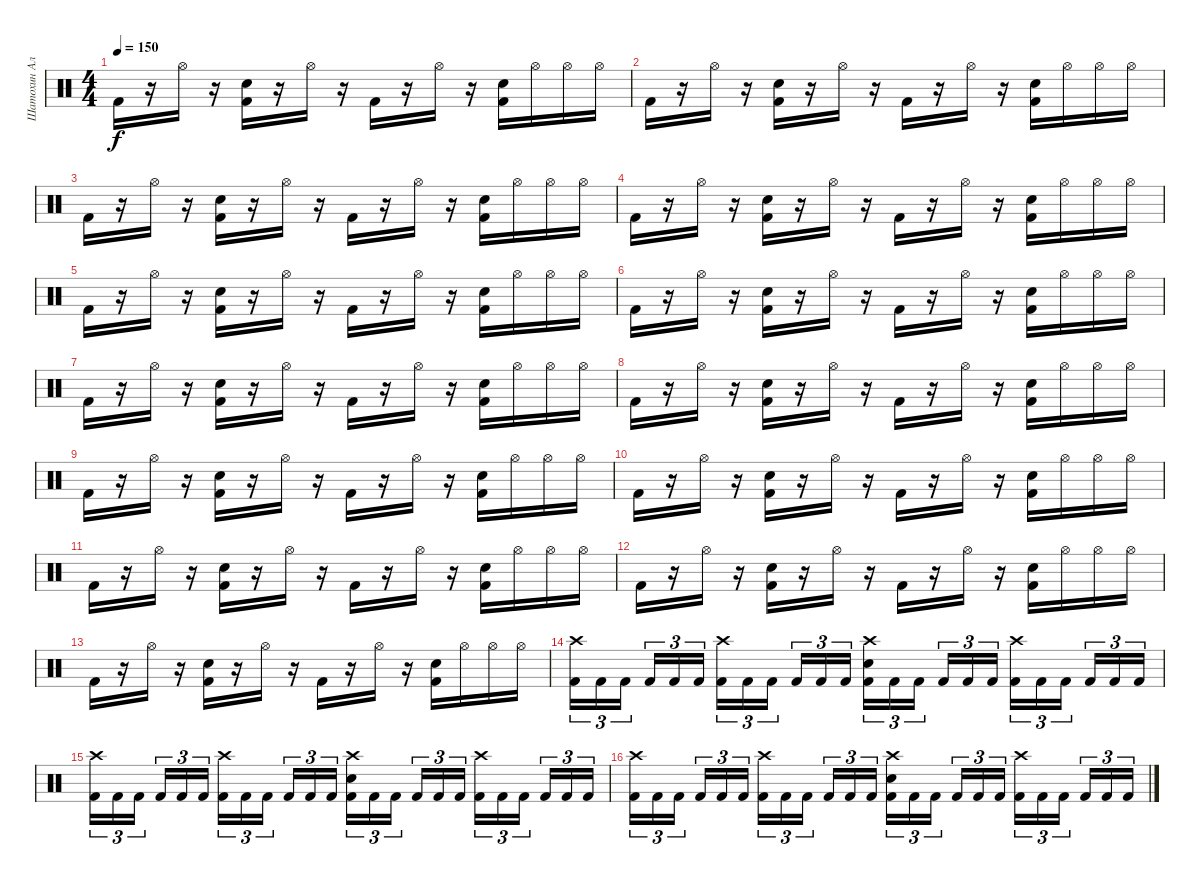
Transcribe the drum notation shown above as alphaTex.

\track ("Шатохин Алексей" "Шатохин Ал") {instrument percussion}
\staff {score}
\articulation defaults
\ts (4 4)
\tempo 150
\clef neutral
\ks c "Kick (hit) 2".16{dy f}
r.16 "Hi-Hat (open)".16 r.16 ("Kick (hit) 2" "Electric Snare (hit)").16 r.16 "Hi-Hat (open)".16 r.16 "Kick (hit) 2".16 r.16 "Hi-Hat (open)".16 r.16 ("Kick (hit) 2" "Electric Snare (hit)").16 "Hi-Hat (open)".16 "Hi-Hat (open)".16 "Hi-Hat (open)".16 |
"Kick (hit) 2".16 r.16 "Hi-Hat (open)".16 r.16 ("Kick (hit) 2" "Electric Snare (hit)").16 r.16 "Hi-Hat (open)".16 r.16 "Kick (hit) 2".16 r.16 "Hi-Hat (open)".16 r.16 ("Kick (hit) 2" "Electric Snare (hit)").16 "Hi-Hat (open)".16 "Hi-Hat (open)".16 "Hi-Hat (open)".16 |
"Kick (hit) 2".16 r.16 "Hi-Hat (open)".16 r.16 ("Kick (hit) 2" "Electric Snare (hit)").16 r.16 "Hi-Hat (open)".16 r.16 "Kick (hit) 2".16 r.16 "Hi-Hat (open)".16 r.16 ("Kick (hit) 2" "Electric Snare (hit)").16 "Hi-Hat (open)".16 "Hi-Hat (open)".16 "Hi-Hat (open)".16 |
"Kick (hit) 2".16 r.16 "Hi-Hat (open)".16 r.16 ("Kick (hit) 2" "Electric Snare (hit)").16 r.16 "Hi-Hat (open)".16 r.16 "Kick (hit) 2".16 r.16 "Hi-Hat (open)".16 r.16 ("Kick (hit) 2" "Electric Snare (hit)").16 "Hi-Hat (open)".16 "Hi-Hat (open)".16 "Hi-Hat (open)".16 |
"Kick (hit) 2".16 r.16 "Hi-Hat (open)".16 r.16 ("Kick (hit) 2" "Electric Snare (hit)").16 r.16 "Hi-Hat (open)".16 r.16 "Kick (hit) 2".16 r.16 "Hi-Hat (open)".16 r.16 ("Kick (hit) 2" "Electric Snare (hit)").16 "Hi-Hat (open)".16 "Hi-Hat (open)".16 "Hi-Hat (open)".16 |
"Kick (hit) 2".16 r.16 "Hi-Hat (open)".16 r.16 ("Kick (hit) 2" "Electric Snare (hit)").16 r.16 "Hi-Hat (open)".16 r.16 "Kick (hit) 2".16 r.16 "Hi-Hat (open)".16 r.16 ("Kick (hit) 2" "Electric Snare (hit)").16 "Hi-Hat (open)".16 "Hi-Hat (open)".16 "Hi-Hat (open)".16 |
"Kick (hit) 2".16 r.16 "Hi-Hat (open)".16 r.16 ("Kick (hit) 2" "Electric Snare (hit)").16 r.16 "Hi-Hat (open)".16 r.16 "Kick (hit) 2".16 r.16 "Hi-Hat (open)".16 r.16 ("Kick (hit) 2" "Electric Snare (hit)").16 "Hi-Hat (open)".16 "Hi-Hat (open)".16 "Hi-Hat (open)".16 |
"Kick (hit) 2".16 r.16 "Hi-Hat (open)".16 r.16 ("Kick (hit) 2" "Electric Snare (hit)").16 r.16 "Hi-Hat (open)".16 r.16 "Kick (hit) 2".16 r.16 "Hi-Hat (open)".16 r.16 ("Kick (hit) 2" "Electric Snare (hit)").16 "Hi-Hat (open)".16 "Hi-Hat (open)".16 "Hi-Hat (open)".16 |
"Kick (hit) 2".16 r.16 "Hi-Hat (open)".16 r.16 ("Kick (hit) 2" "Electric Snare (hit)").16 r.16 "Hi-Hat (open)".16 r.16 "Kick (hit) 2".16 r.16 "Hi-Hat (open)".16 r.16 ("Kick (hit) 2" "Electric Snare (hit)").16 "Hi-Hat (open)".16 "Hi-Hat (open)".16 "Hi-Hat (open)".16 |
"Kick (hit) 2".16 r.16 "Hi-Hat (open)".16 r.16 ("Kick (hit) 2" "Electric Snare (hit)").16 r.16 "Hi-Hat (open)".16 r.16 "Kick (hit) 2".16 r.16 "Hi-Hat (open)".16 r.16 ("Kick (hit) 2" "Electric Snare (hit)").16 "Hi-Hat (open)".16 "Hi-Hat (open)".16 "Hi-Hat (open)".16 |
"Kick (hit) 2".16 r.16 "Hi-Hat (open)".16 r.16 ("Kick (hit) 2" "Electric Snare (hit)").16 r.16 "Hi-Hat (open)".16 r.16 "Kick (hit) 2".16 r.16 "Hi-Hat (open)".16 r.16 ("Kick (hit) 2" "Electric Snare (hit)").16 "Hi-Hat (open)".16 "Hi-Hat (open)".16 "Hi-Hat (open)".16 |
"Kick (hit) 2".16 r.16 "Hi-Hat (open)".16 r.16 ("Kick (hit) 2" "Electric Snare (hit)").16 r.16 "Hi-Hat (open)".16 r.16 "Kick (hit) 2".16 r.16 "Hi-Hat (open)".16 r.16 ("Kick (hit) 2" "Electric Snare (hit)").16 "Hi-Hat (open)".16 "Hi-Hat (open)".16 "Hi-Hat (open)".16 |
"Kick (hit) 2".16 r.16 "Hi-Hat (open)".16 r.16 ("Kick (hit) 2" "Electric Snare (hit)").16 r.16 "Hi-Hat (open)".16 r.16 "Kick (hit) 2".16 r.16 "Hi-Hat (open)".16 r.16 ("Kick (hit) 2" "Electric Snare (hit)").16 "Hi-Hat (open)".16 "Hi-Hat (open)".16 "Hi-Hat (open)".16 |
("Crash high (hit)" "Kick (hit) 2").16{tu (3 2)} "Kick (hit) 2".16{tu (3 2)} "Kick (hit) 2".16{tu (3 2) beam splitsecondary} "Kick (hit) 2".16{tu (3 2)} "Kick (hit) 2".16{tu (3 2)} "Kick (hit) 2".16{tu (3 2)} ("Crash high (hit)" "Kick (hit) 2").16{tu (3 2)} "Kick (hit) 2".16{tu (3 2)} "Kick (hit) 2".16{tu (3 2) beam splitsecondary} "Kick (hit) 2".16{tu (3 2)} "Kick (hit) 2".16{tu (3 2)} "Kick (hit) 2".16{tu (3 2)} ("Crash high (hit)" "Electric Snare (hit)" "Kick (hit) 2").16{tu (3 2)} "Kick (hit) 2".16{tu (3 2)} "Kick (hit) 2".16{tu (3 2) beam splitsecondary} "Kick (hit) 2".16{tu (3 2)} "Kick (hit) 2".16{tu (3 2)} "Kick (hit) 2".16{tu (3 2)} ("Crash high (hit)" "Kick (hit) 2").16{tu (3 2)} "Kick (hit) 2".16{tu (3 2)} "Kick (hit) 2".16{tu (3 2) beam splitsecondary} "Kick (hit) 2".16{tu (3 2)} "Kick (hit) 2".16{tu (3 2)} "Kick (hit) 2".16{tu (3 2)} |
("Crash high (hit)" "Kick (hit) 2").16{tu (3 2)} "Kick (hit) 2".16{tu (3 2)} "Kick (hit) 2".16{tu (3 2) beam splitsecondary} "Kick (hit) 2".16{tu (3 2)} "Kick (hit) 2".16{tu (3 2)} "Kick (hit) 2".16{tu (3 2)} ("Crash high (hit)" "Kick (hit) 2").16{tu (3 2)} "Kick (hit) 2".16{tu (3 2)} "Kick (hit) 2".16{tu (3 2) beam splitsecondary} "Kick (hit) 2".16{tu (3 2)} "Kick (hit) 2".16{tu (3 2)} "Kick (hit) 2".16{tu (3 2)} ("Crash high (hit)" "Electric Snare (hit)" "Kick (hit) 2").16{tu (3 2)} "Kick (hit) 2".16{tu (3 2)} "Kick (hit) 2".16{tu (3 2) beam splitsecondary} "Kick (hit) 2".16{tu (3 2)} "Kick (hit) 2".16{tu (3 2)} "Kick (hit) 2".16{tu (3 2)} ("Crash high (hit)" "Kick (hit) 2").16{tu (3 2)} "Kick (hit) 2".16{tu (3 2)} "Kick (hit) 2".16{tu (3 2) beam splitsecondary} "Kick (hit) 2".16{tu (3 2)} "Kick (hit) 2".16{tu (3 2)} "Kick (hit) 2".16{tu (3 2)} |
("Crash high (hit)" "Kick (hit) 2").16{tu (3 2)} "Kick (hit) 2".16{tu (3 2)} "Kick (hit) 2".16{tu (3 2) beam splitsecondary} "Kick (hit) 2".16{tu (3 2)} "Kick (hit) 2".16{tu (3 2)} "Kick (hit) 2".16{tu (3 2)} ("Crash high (hit)" "Kick (hit) 2").16{tu (3 2)} "Kick (hit) 2".16{tu (3 2)} "Kick (hit) 2".16{tu (3 2) beam splitsecondary} "Kick (hit) 2".16{tu (3 2)} "Kick (hit) 2".16{tu (3 2)} "Kick (hit) 2".16{tu (3 2)} ("Crash high (hit)" "Electric Snare (hit)" "Kick (hit) 2").16{tu (3 2)} "Kick (hit) 2".16{tu (3 2)} "Kick (hit) 2".16{tu (3 2) beam splitsecondary} "Kick (hit) 2".16{tu (3 2)} "Kick (hit) 2".16{tu (3 2)} "Kick (hit) 2".16{tu (3 2)} ("Crash high (hit)" "Kick (hit) 2").16{tu (3 2)} "Kick (hit) 2".16{tu (3 2)} "Kick (hit) 2".16{tu (3 2) beam splitsecondary} "Kick (hit) 2".16{tu (3 2)} "Kick (hit) 2".16{tu (3 2)} "Kick (hit) 2".16{tu (3 2)}
